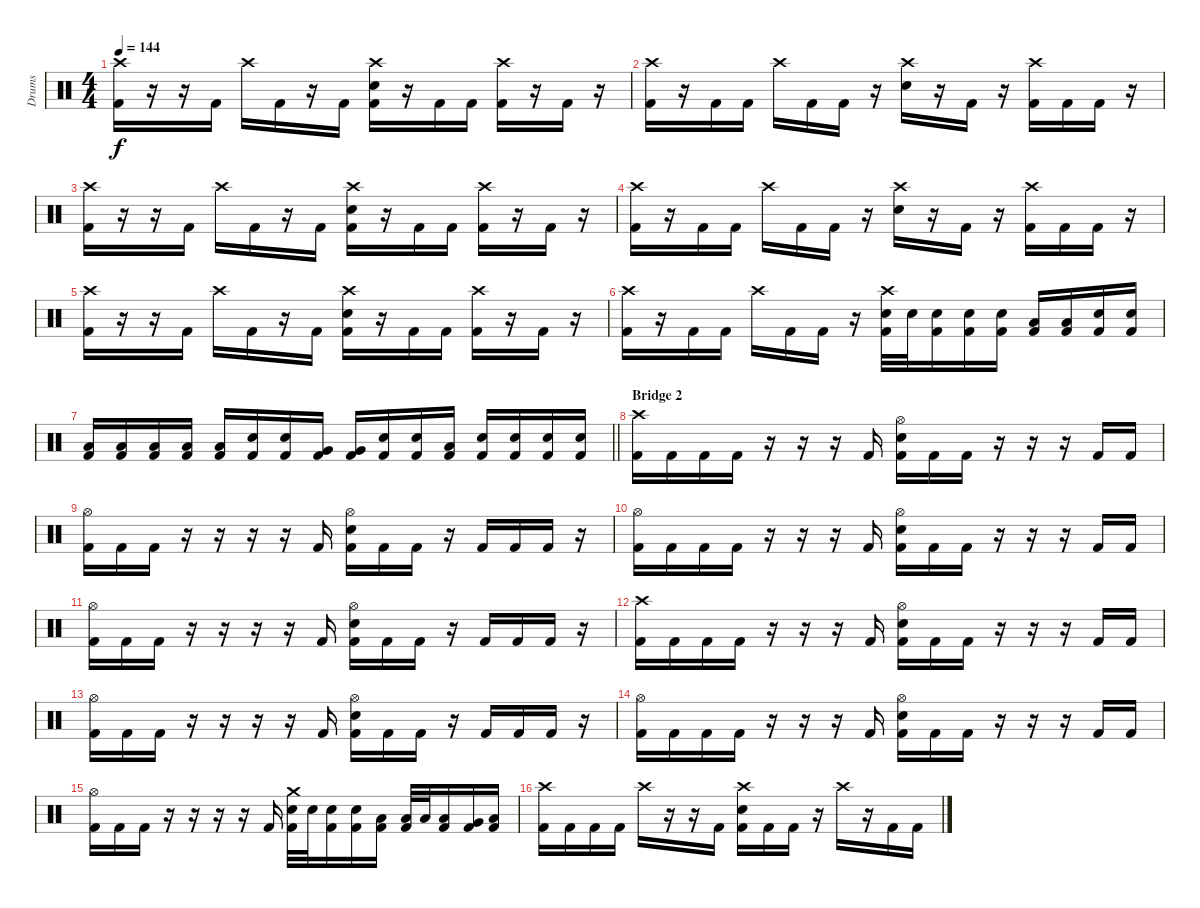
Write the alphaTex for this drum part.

\track ("Drums" "Drums") {instrument percussion}
\staff {score}
\articulation defaults
\ts (4 4)
\tempo 144
\clef neutral
\ks c
("Crash high (hit)" "Kick (hit) 2").16{dy f} r.16 r.16 "Kick (hit) 2".16 "Crash high (hit)".16 "Kick (hit) 2".16 r.16 "Kick (hit) 2".16 ("Crash high (hit)" "Snare (hit) 2" "Kick (hit) 2").16 r.16 "Kick (hit) 2".16 "Kick (hit) 2".16 ("Crash high (hit)" "Kick (hit) 2").16 r.16 "Kick (hit) 2".16 r.16 |
("Crash high (hit)" "Kick (hit) 2").16 r.16 "Kick (hit) 2".16 "Kick (hit) 2".16 "Crash high (hit)".16 "Kick (hit) 2".16 "Kick (hit) 2".16 r.16 ("Crash high (hit)" "Snare (hit) 2").16 r.16 "Kick (hit) 2".16 r.16 ("Crash high (hit)" "Kick (hit) 2").16 "Kick (hit) 2".16 "Kick (hit) 2".16 r.16 |
("Crash high (hit)" "Kick (hit) 2").16 r.16 r.16 "Kick (hit) 2".16 "Crash high (hit)".16 "Kick (hit) 2".16 r.16 "Kick (hit) 2".16 ("Crash high (hit)" "Snare (hit) 2" "Kick (hit) 2").16 r.16 "Kick (hit) 2".16 "Kick (hit) 2".16 ("Crash high (hit)" "Kick (hit) 2").16 r.16 "Kick (hit) 2".16 r.16 |
("Crash high (hit)" "Kick (hit) 2").16 r.16 "Kick (hit) 2".16 "Kick (hit) 2".16 "Crash high (hit)".16 "Kick (hit) 2".16 "Kick (hit) 2".16 r.16 ("Crash high (hit)" "Snare (hit) 2").16 r.16 "Kick (hit) 2".16 r.16 ("Crash high (hit)" "Kick (hit) 2").16 "Kick (hit) 2".16 "Kick (hit) 2".16 r.16 |
("Crash high (hit)" "Kick (hit) 2").16 r.16 r.16 "Kick (hit) 2".16 "Crash high (hit)".16 "Kick (hit) 2".16 r.16 "Kick (hit) 2".16 ("Crash high (hit)" "Snare (hit) 2" "Kick (hit) 2").16 r.16 "Kick (hit) 2".16 "Kick (hit) 2".16 ("Crash high (hit)" "Kick (hit) 2").16 r.16 "Kick (hit) 2".16 r.16 |
("Crash high (hit)" "Kick (hit) 2").16 r.16 "Kick (hit) 2".16 "Kick (hit) 2".16 "Crash high (hit)".16 "Kick (hit) 2".16 "Kick (hit) 2".16 r.16 ("Crash high (hit)" "Snare (hit) 2" "Kick (hit) 2").32 "Snare (hit) 2".32 ("Snare (hit) 2" "Kick (hit) 2").16 ("Snare (hit) 2" "Kick (hit) 2").16 ("Snare (hit) 2" "Kick (hit) 2").16 ("Low Tom (hit)" "Kick (hit) 2").16 ("Low Tom (hit)" "Kick (hit) 2").16 ("Snare (hit) 2" "Kick (hit) 2").16 ("Snare (hit) 2" "Kick (hit) 2").16 |
\barLineRight lightlight
("Low Tom (hit)" "Kick (hit) 2").16 ("Low Tom (hit)" "Kick (hit) 2").16 ("Low Tom (hit)" "Kick (hit) 2").16 ("Low Tom (hit)" "Kick (hit) 2").16 ("Low Tom (hit)" "Kick (hit) 2").16 ("Snare (hit) 2" "Kick (hit) 2").16 ("Snare (hit) 2" "Kick (hit) 2").16 ("Very Low Tom (hit)" "Kick (hit) 2").16 ("Very Low Tom (hit)" "Kick (hit) 2").16 ("Snare (hit) 2" "Kick (hit) 2").16 ("Snare (hit) 2" "Kick (hit) 2").16 ("Low Floor Tom (hit)" "Kick (hit) 2").16 ("Snare (hit) 2" "Kick (hit) 2").16 ("Snare (hit) 2" "Kick (hit) 2").16 ("Snare (hit) 2" "Kick (hit) 2").16 ("Snare (hit) 2" "Kick (hit) 2").16 |
\section ("" "Bridge 2")
("Crash high (hit)" "Kick (hit) 2").16 "Kick (hit) 2".16 "Kick (hit) 2".16 "Kick (hit) 2".16 r.16 r.16 r.16 "Kick (hit) 2".16 ("Hi-Hat (open)" "Snare (hit) 2" "Kick (hit) 2").16 "Kick (hit) 2".16 "Kick (hit) 2".16 r.16 r.16 r.16 "Kick (hit) 2".16 "Kick (hit) 2".16 |
("Hi-Hat (open)" "Kick (hit) 2").16 "Kick (hit) 2".16 "Kick (hit) 2".16 r.16 r.16 r.16 r.16 "Kick (hit) 2".16 ("Hi-Hat (open)" "Snare (hit) 2" "Kick (hit) 2").16 "Kick (hit) 2".16 "Kick (hit) 2".16 r.16 "Kick (hit) 2".16 "Kick (hit) 2".16 "Kick (hit) 2".16 r.16 |
("Hi-Hat (open)" "Kick (hit) 2").16 "Kick (hit) 2".16 "Kick (hit) 2".16 "Kick (hit) 2".16 r.16 r.16 r.16 "Kick (hit) 2".16 ("Hi-Hat (open)" "Snare (hit) 2" "Kick (hit) 2").16 "Kick (hit) 2".16 "Kick (hit) 2".16 r.16 r.16 r.16 "Kick (hit) 2".16 "Kick (hit) 2".16 |
("Hi-Hat (open)" "Kick (hit) 2").16 "Kick (hit) 2".16 "Kick (hit) 2".16 r.16 r.16 r.16 r.16 "Kick (hit) 2".16 ("Hi-Hat (open)" "Snare (hit) 2" "Kick (hit) 2").16 "Kick (hit) 2".16 "Kick (hit) 2".16 r.16 "Kick (hit) 2".16 "Kick (hit) 2".16 "Kick (hit) 2".16 r.16 |
("Crash high (hit)" "Kick (hit) 2").16 "Kick (hit) 2".16 "Kick (hit) 2".16 "Kick (hit) 2".16 r.16 r.16 r.16 "Kick (hit) 2".16 ("Hi-Hat (open)" "Snare (hit) 2" "Kick (hit) 2").16 "Kick (hit) 2".16 "Kick (hit) 2".16 r.16 r.16 r.16 "Kick (hit) 2".16 "Kick (hit) 2".16 |
("Hi-Hat (open)" "Kick (hit) 2").16 "Kick (hit) 2".16 "Kick (hit) 2".16 r.16 r.16 r.16 r.16 "Kick (hit) 2".16 ("Hi-Hat (open)" "Snare (hit) 2" "Kick (hit) 2").16 "Kick (hit) 2".16 "Kick (hit) 2".16 r.16 "Kick (hit) 2".16 "Kick (hit) 2".16 "Kick (hit) 2".16 r.16 |
("Hi-Hat (open)" "Kick (hit) 2").16 "Kick (hit) 2".16 "Kick (hit) 2".16 "Kick (hit) 2".16 r.16 r.16 r.16 "Kick (hit) 2".16 ("Hi-Hat (open)" "Snare (hit) 2" "Kick (hit) 2").16 "Kick (hit) 2".16 "Kick (hit) 2".16 r.16 r.16 r.16 "Kick (hit) 2".16 "Kick (hit) 2".16 |
("Hi-Hat (open)" "Kick (hit) 2").16 "Kick (hit) 2".16 "Kick (hit) 2".16 r.16 r.16 r.16 r.16 "Kick (hit) 2".16 ("Crash medium (hit)" "Snare (hit) 2" "Kick (hit) 2").32 "Snare (hit) 2".32 ("Snare (hit) 2" "Kick (hit) 2").16 ("Snare (hit) 2" "Kick (hit) 2").16 ("Low Tom (hit)" "Kick (hit) 2").16 ("Low Tom (hit)" "Kick (hit) 2").32 "Low Tom (hit)".32 ("Low Tom (hit)" "Kick (hit) 2").16 ("Very Low Tom (hit)" "Kick (hit) 2").16 ("Low Floor Tom (hit)" "Kick (hit) 2").16 |
("Crash high (hit)" "Kick (hit) 2").16 "Kick (hit) 2".16 "Kick (hit) 2".16 "Kick (hit) 2".16 "Crash high (hit)".16 r.16 r.16 "Kick (hit) 2".16 ("Crash high (hit)" "Snare (hit) 2" "Kick (hit) 2").16 "Kick (hit) 2".16 "Kick (hit) 2".16 r.16 "Crash high (hit)".16 r.16 "Kick (hit) 2".16 "Kick (hit) 2".16
